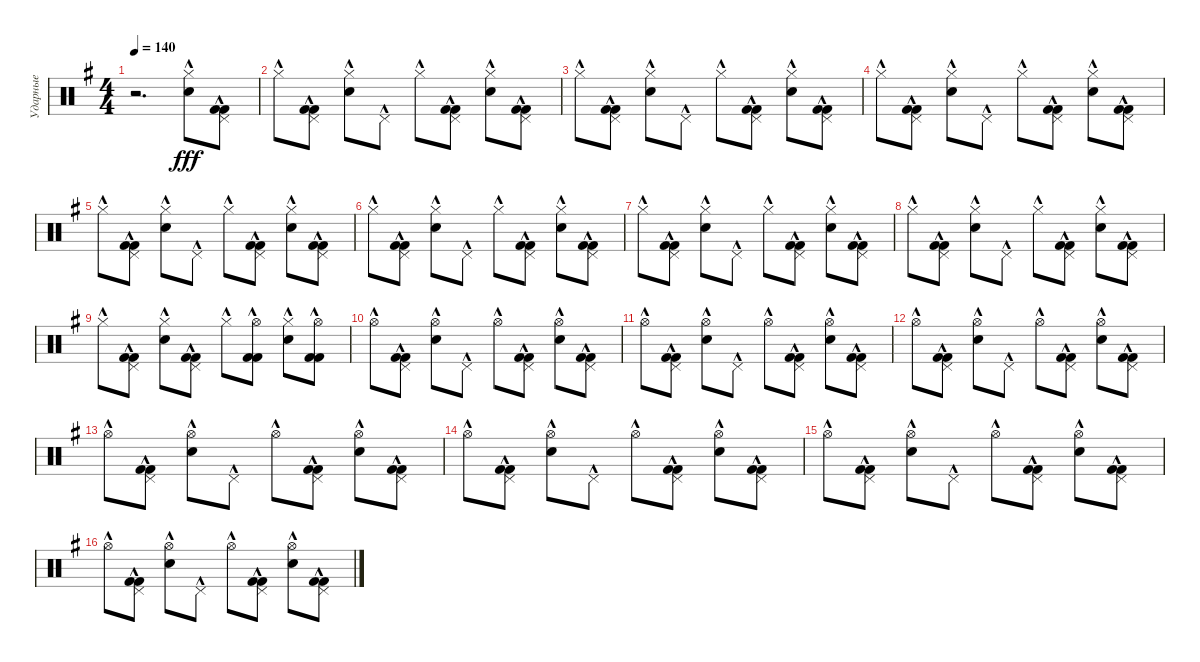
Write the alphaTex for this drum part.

\track ("Ударные" "Ударные") {instrument percussion}
\staff {score}
\articulation defaults
\ts (4 4)
\tempo 140
\clef neutral
\ks g
r.2{d dy fff} ("Hi-Hat (closed)"{hac} "Electric Snare (hit)"{hac}).8 ("Pedal Hi-Hat (hit)"{hac} "Kick (hit) 2"{hac} "Kick (hit) 2"{hac}).8 |
"Hi-Hat (closed)"{hac}.8 ("Pedal Hi-Hat (hit)"{hac} "Kick (hit) 2"{hac} "Kick (hit) 2"{hac}).8 ("Hi-Hat (closed)"{hac} "Electric Snare (hit)"{hac}).8 "Pedal Hi-Hat (hit)"{hac}.8 "Hi-Hat (closed)"{hac}.8 ("Pedal Hi-Hat (hit)"{hac} "Kick (hit) 2"{hac} "Kick (hit) 2"{hac}).8 ("Hi-Hat (closed)"{hac} "Electric Snare (hit)"{hac}).8 ("Pedal Hi-Hat (hit)"{hac} "Kick (hit) 2"{hac} "Kick (hit) 2"{hac}).8 |
"Hi-Hat (closed)"{hac}.8 ("Pedal Hi-Hat (hit)"{hac} "Kick (hit) 2"{hac} "Kick (hit) 2"{hac}).8 ("Hi-Hat (closed)"{hac} "Electric Snare (hit)"{hac}).8 "Pedal Hi-Hat (hit)"{hac}.8 "Hi-Hat (closed)"{hac}.8 ("Pedal Hi-Hat (hit)"{hac} "Kick (hit) 2"{hac} "Kick (hit) 2"{hac}).8 ("Hi-Hat (closed)"{hac} "Electric Snare (hit)"{hac}).8 ("Pedal Hi-Hat (hit)"{hac} "Kick (hit) 2"{hac} "Kick (hit) 2"{hac}).8 |
"Hi-Hat (closed)"{hac}.8 ("Pedal Hi-Hat (hit)"{hac} "Kick (hit) 2"{hac} "Kick (hit) 2"{hac}).8 ("Hi-Hat (closed)"{hac} "Electric Snare (hit)"{hac}).8 "Pedal Hi-Hat (hit)"{hac}.8 "Hi-Hat (closed)"{hac}.8 ("Pedal Hi-Hat (hit)"{hac} "Kick (hit) 2"{hac} "Kick (hit) 2"{hac}).8 ("Hi-Hat (closed)"{hac} "Electric Snare (hit)"{hac}).8 ("Pedal Hi-Hat (hit)"{hac} "Kick (hit) 2"{hac} "Kick (hit) 2"{hac}).8 |
"Hi-Hat (closed)"{hac}.8 ("Pedal Hi-Hat (hit)"{hac} "Kick (hit) 2"{hac} "Kick (hit) 2"{hac}).8 ("Hi-Hat (closed)"{hac} "Electric Snare (hit)"{hac}).8 "Pedal Hi-Hat (hit)"{hac}.8 "Hi-Hat (closed)"{hac}.8 ("Pedal Hi-Hat (hit)"{hac} "Kick (hit) 2"{hac} "Kick (hit) 2"{hac}).8 ("Hi-Hat (closed)"{hac} "Electric Snare (hit)"{hac}).8 ("Pedal Hi-Hat (hit)"{hac} "Kick (hit) 2"{hac} "Kick (hit) 2"{hac}).8 |
"Hi-Hat (closed)"{hac}.8 ("Pedal Hi-Hat (hit)"{hac} "Kick (hit) 2"{hac} "Kick (hit) 2"{hac}).8 ("Hi-Hat (closed)"{hac} "Electric Snare (hit)"{hac}).8 "Pedal Hi-Hat (hit)"{hac}.8 "Hi-Hat (closed)"{hac}.8 ("Pedal Hi-Hat (hit)"{hac} "Kick (hit) 2"{hac} "Kick (hit) 2"{hac}).8 ("Hi-Hat (closed)"{hac} "Electric Snare (hit)"{hac}).8 ("Pedal Hi-Hat (hit)"{hac} "Kick (hit) 2"{hac} "Kick (hit) 2"{hac}).8 |
"Hi-Hat (closed)"{hac}.8 ("Pedal Hi-Hat (hit)"{hac} "Kick (hit) 2"{hac} "Kick (hit) 2"{hac}).8 ("Hi-Hat (closed)"{hac} "Electric Snare (hit)"{hac}).8 "Pedal Hi-Hat (hit)"{hac}.8 "Hi-Hat (closed)"{hac}.8 ("Pedal Hi-Hat (hit)"{hac} "Kick (hit) 2"{hac} "Kick (hit) 2"{hac}).8 ("Hi-Hat (closed)"{hac} "Electric Snare (hit)"{hac}).8 ("Pedal Hi-Hat (hit)"{hac} "Kick (hit) 2"{hac} "Kick (hit) 2"{hac}).8 |
"Hi-Hat (closed)"{hac}.8 ("Pedal Hi-Hat (hit)"{hac} "Kick (hit) 2"{hac} "Kick (hit) 2"{hac}).8 ("Hi-Hat (closed)"{hac} "Electric Snare (hit)"{hac}).8 "Pedal Hi-Hat (hit)"{hac}.8 "Hi-Hat (closed)"{hac}.8 ("Pedal Hi-Hat (hit)"{hac} "Kick (hit) 2"{hac} "Kick (hit) 2"{hac}).8 ("Hi-Hat (closed)"{hac} "Electric Snare (hit)"{hac}).8 ("Pedal Hi-Hat (hit)"{hac} "Kick (hit) 2"{hac} "Kick (hit) 2"{hac}).8 |
"Hi-Hat (closed)"{hac}.8 ("Pedal Hi-Hat (hit)"{hac} "Kick (hit) 2"{hac} "Kick (hit) 2"{hac}).8 ("Hi-Hat (closed)"{hac} "Electric Snare (hit)"{hac}).8 ("Pedal Hi-Hat (hit)"{hac} "Kick (hit) 2"{hac} "Kick (hit) 2"{hac}).8 "Hi-Hat (closed)"{hac}.8 ("Hi-Hat (open)"{hac} "Kick (hit) 2"{hac} "Kick (hit) 2"{hac}).8 ("Hi-Hat (closed)"{hac} "Electric Snare (hit)"{hac}).8 ("Hi-Hat (open)"{hac} "Kick (hit) 2"{hac} "Kick (hit) 2"{hac}).8 |
"Hi-Hat (open)"{hac}.8 ("Pedal Hi-Hat (hit)"{hac} "Kick (hit) 2"{hac} "Kick (hit) 2"{hac}).8 ("Hi-Hat (open)"{hac} "Electric Snare (hit)"{hac}).8 "Pedal Hi-Hat (hit)"{hac}.8 "Hi-Hat (open)"{hac}.8 ("Pedal Hi-Hat (hit)"{hac} "Kick (hit) 2"{hac} "Kick (hit) 2"{hac}).8 ("Hi-Hat (open)"{hac} "Electric Snare (hit)"{hac}).8 ("Pedal Hi-Hat (hit)"{hac} "Kick (hit) 2"{hac} "Kick (hit) 2"{hac}).8 |
"Hi-Hat (open)"{hac}.8 ("Pedal Hi-Hat (hit)"{hac} "Kick (hit) 2"{hac} "Kick (hit) 2"{hac}).8 ("Hi-Hat (open)"{hac} "Electric Snare (hit)"{hac}).8 "Pedal Hi-Hat (hit)"{hac}.8 "Hi-Hat (open)"{hac}.8 ("Pedal Hi-Hat (hit)"{hac} "Kick (hit) 2"{hac} "Kick (hit) 2"{hac}).8 ("Hi-Hat (open)"{hac} "Electric Snare (hit)"{hac}).8 ("Pedal Hi-Hat (hit)"{hac} "Kick (hit) 2"{hac} "Kick (hit) 2"{hac}).8 |
"Hi-Hat (open)"{hac}.8 ("Pedal Hi-Hat (hit)"{hac} "Kick (hit) 2"{hac} "Kick (hit) 2"{hac}).8 ("Hi-Hat (open)"{hac} "Electric Snare (hit)"{hac}).8 "Pedal Hi-Hat (hit)"{hac}.8 "Hi-Hat (open)"{hac}.8 ("Pedal Hi-Hat (hit)"{hac} "Kick (hit) 2"{hac} "Kick (hit) 2"{hac}).8 ("Hi-Hat (open)"{hac} "Electric Snare (hit)"{hac}).8 ("Pedal Hi-Hat (hit)"{hac} "Kick (hit) 2"{hac} "Kick (hit) 2"{hac}).8 |
"Hi-Hat (open)"{hac}.8 ("Pedal Hi-Hat (hit)"{hac} "Kick (hit) 2"{hac} "Kick (hit) 2"{hac}).8 ("Hi-Hat (open)"{hac} "Electric Snare (hit)"{hac}).8 "Pedal Hi-Hat (hit)"{hac}.8 "Hi-Hat (open)"{hac}.8 ("Pedal Hi-Hat (hit)"{hac} "Kick (hit) 2"{hac} "Kick (hit) 2"{hac}).8 ("Hi-Hat (open)"{hac} "Electric Snare (hit)"{hac}).8 ("Pedal Hi-Hat (hit)"{hac} "Kick (hit) 2"{hac} "Kick (hit) 2"{hac}).8 |
"Hi-Hat (open)"{hac}.8 ("Pedal Hi-Hat (hit)"{hac} "Kick (hit) 2"{hac} "Kick (hit) 2"{hac}).8 ("Hi-Hat (open)"{hac} "Electric Snare (hit)"{hac}).8 "Pedal Hi-Hat (hit)"{hac}.8 "Hi-Hat (open)"{hac}.8 ("Pedal Hi-Hat (hit)"{hac} "Kick (hit) 2"{hac} "Kick (hit) 2"{hac}).8 ("Hi-Hat (open)"{hac} "Electric Snare (hit)"{hac}).8 ("Pedal Hi-Hat (hit)"{hac} "Kick (hit) 2"{hac} "Kick (hit) 2"{hac}).8 |
"Hi-Hat (open)"{hac}.8 ("Pedal Hi-Hat (hit)"{hac} "Kick (hit) 2"{hac} "Kick (hit) 2"{hac}).8 ("Hi-Hat (open)"{hac} "Electric Snare (hit)"{hac}).8 "Pedal Hi-Hat (hit)"{hac}.8 "Hi-Hat (open)"{hac}.8 ("Pedal Hi-Hat (hit)"{hac} "Kick (hit) 2"{hac} "Kick (hit) 2"{hac}).8 ("Hi-Hat (open)"{hac} "Electric Snare (hit)"{hac}).8 ("Pedal Hi-Hat (hit)"{hac} "Kick (hit) 2"{hac} "Kick (hit) 2"{hac}).8 |
"Hi-Hat (open)"{hac}.8 ("Pedal Hi-Hat (hit)"{hac} "Kick (hit) 2"{hac} "Kick (hit) 2"{hac}).8 ("Hi-Hat (open)"{hac} "Electric Snare (hit)"{hac}).8 "Pedal Hi-Hat (hit)"{hac}.8 "Hi-Hat (open)"{hac}.8 ("Pedal Hi-Hat (hit)"{hac} "Kick (hit) 2"{hac} "Kick (hit) 2"{hac}).8 ("Hi-Hat (open)"{hac} "Electric Snare (hit)"{hac}).8 ("Pedal Hi-Hat (hit)"{hac} "Kick (hit) 2"{hac} "Kick (hit) 2"{hac}).8
